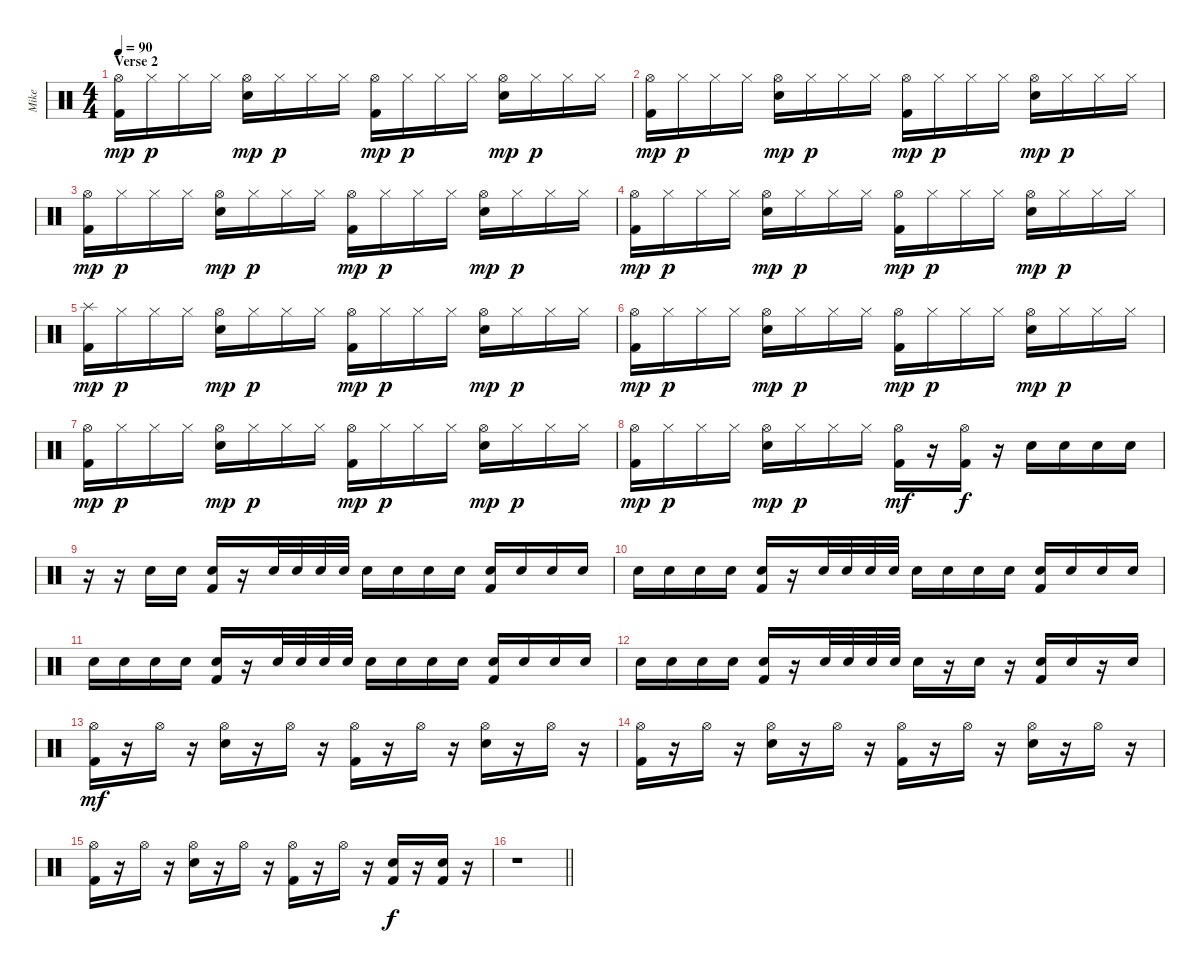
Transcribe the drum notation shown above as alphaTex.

\track ("Mike" "Mike") {instrument percussion}
\staff {score}
\articulation defaults
\ts (4 4)
\section ("" "Verse 2")
\tempo 90
\clef neutral
\ks c
("Hi-Hat (open)" "Kick (hit) 2").16{dy mp} "Hi-Hat (closed)".16{dy p} "Hi-Hat (closed)".16 "Hi-Hat (closed)".16 ("Hi-Hat (open)" "Snare (hit) 2").16{dy mp} "Hi-Hat (closed)".16{dy p} "Hi-Hat (closed)".16 "Hi-Hat (closed)".16 ("Hi-Hat (open)" "Kick (hit) 2").16{dy mp} "Hi-Hat (closed)".16{dy p} "Hi-Hat (closed)".16 "Hi-Hat (closed)".16 ("Hi-Hat (open)" "Snare (hit) 2").16{dy mp} "Hi-Hat (closed)".16{dy p} "Hi-Hat (closed)".16 "Hi-Hat (closed)".16 |
("Hi-Hat (open)" "Kick (hit) 2").16{dy mp} "Hi-Hat (closed)".16{dy p} "Hi-Hat (closed)".16 "Hi-Hat (closed)".16 ("Hi-Hat (open)" "Snare (hit) 2").16{dy mp} "Hi-Hat (closed)".16{dy p} "Hi-Hat (closed)".16 "Hi-Hat (closed)".16 ("Hi-Hat (open)" "Kick (hit) 2").16{dy mp} "Hi-Hat (closed)".16{dy p} "Hi-Hat (closed)".16 "Hi-Hat (closed)".16 ("Hi-Hat (open)" "Snare (hit) 2").16{dy mp} "Hi-Hat (closed)".16{dy p} "Hi-Hat (closed)".16 "Hi-Hat (closed)".16 |
("Hi-Hat (open)" "Kick (hit) 2").16{dy mp} "Hi-Hat (closed)".16{dy p} "Hi-Hat (closed)".16 "Hi-Hat (closed)".16 ("Hi-Hat (open)" "Snare (hit) 2").16{dy mp} "Hi-Hat (closed)".16{dy p} "Hi-Hat (closed)".16 "Hi-Hat (closed)".16 ("Hi-Hat (open)" "Kick (hit) 2").16{dy mp} "Hi-Hat (closed)".16{dy p} "Hi-Hat (closed)".16 "Hi-Hat (closed)".16 ("Hi-Hat (open)" "Snare (hit) 2").16{dy mp} "Hi-Hat (closed)".16{dy p} "Hi-Hat (closed)".16 "Hi-Hat (closed)".16 |
("Hi-Hat (open)" "Kick (hit) 2").16{dy mp} "Hi-Hat (closed)".16{dy p} "Hi-Hat (closed)".16 "Hi-Hat (closed)".16 ("Hi-Hat (open)" "Snare (hit) 2").16{dy mp} "Hi-Hat (closed)".16{dy p} "Hi-Hat (closed)".16 "Hi-Hat (closed)".16 ("Hi-Hat (open)" "Kick (hit) 2").16{dy mp} "Hi-Hat (closed)".16{dy p} "Hi-Hat (closed)".16 "Hi-Hat (closed)".16 ("Hi-Hat (open)" "Snare (hit) 2").16{dy mp} "Hi-Hat (closed)".16{dy p} "Hi-Hat (closed)".16 "Hi-Hat (closed)".16 |
("Splash (hit)" "Kick (hit) 2").16{dy mp} "Hi-Hat (closed)".16{dy p} "Hi-Hat (closed)".16 "Hi-Hat (closed)".16 ("Hi-Hat (open)" "Snare (hit) 2").16{dy mp} "Hi-Hat (closed)".16{dy p} "Hi-Hat (closed)".16 "Hi-Hat (closed)".16 ("Hi-Hat (open)" "Kick (hit) 2").16{dy mp} "Hi-Hat (closed)".16{dy p} "Hi-Hat (closed)".16 "Hi-Hat (closed)".16 ("Hi-Hat (open)" "Snare (hit) 2").16{dy mp} "Hi-Hat (closed)".16{dy p} "Hi-Hat (closed)".16 "Hi-Hat (closed)".16 |
("Hi-Hat (open)" "Kick (hit) 2").16{dy mp} "Hi-Hat (closed)".16{dy p} "Hi-Hat (closed)".16 "Hi-Hat (closed)".16 ("Hi-Hat (open)" "Snare (hit) 2").16{dy mp} "Hi-Hat (closed)".16{dy p} "Hi-Hat (closed)".16 "Hi-Hat (closed)".16 ("Hi-Hat (open)" "Kick (hit) 2").16{dy mp} "Hi-Hat (closed)".16{dy p} "Hi-Hat (closed)".16 "Hi-Hat (closed)".16 ("Hi-Hat (open)" "Snare (hit) 2").16{dy mp} "Hi-Hat (closed)".16{dy p} "Hi-Hat (closed)".16 "Hi-Hat (closed)".16 |
("Hi-Hat (open)" "Kick (hit) 2").16{dy mp} "Hi-Hat (closed)".16{dy p} "Hi-Hat (closed)".16 "Hi-Hat (closed)".16 ("Hi-Hat (open)" "Snare (hit) 2").16{dy mp} "Hi-Hat (closed)".16{dy p} "Hi-Hat (closed)".16 "Hi-Hat (closed)".16 ("Hi-Hat (open)" "Kick (hit) 2").16{dy mp} "Hi-Hat (closed)".16{dy p} "Hi-Hat (closed)".16 "Hi-Hat (closed)".16 ("Hi-Hat (open)" "Snare (hit) 2").16{dy mp} "Hi-Hat (closed)".16{dy p} "Hi-Hat (closed)".16 "Hi-Hat (closed)".16 |
("Hi-Hat (open)" "Kick (hit) 2").16{dy mp} "Hi-Hat (closed)".16{dy p} "Hi-Hat (closed)".16 "Hi-Hat (closed)".16 ("Hi-Hat (open)" "Snare (hit) 2").16{dy mp} "Hi-Hat (closed)".16{dy p} "Hi-Hat (closed)".16 "Hi-Hat (closed)".16 ("Hi-Hat (open)" "Kick (hit) 2").16{dy mf} r.16 ("Hi-Hat (open)" "Kick (hit) 2").16{dy f} r.16 "Snare (hit) 2".16 "Snare (hit) 2".16 "Snare (hit) 2".16 "Snare (hit) 2".16 |
r.16 r.16 "Snare (hit) 2".16 "Snare (hit) 2".16 ("Snare (hit) 2" "Kick (hit) 2").16 r.16 "Snare (hit) 2".32 "Snare (hit) 2".32 "Snare (hit) 2".32 "Snare (hit) 2".32 "Snare (hit) 2".16 "Snare (hit) 2".16 "Snare (hit) 2".16 "Snare (hit) 2".16 ("Snare (hit) 2" "Kick (hit) 2").16 "Snare (hit) 2".16 "Snare (hit) 2".16 "Snare (hit) 2".16 |
"Snare (hit) 2".16 "Snare (hit) 2".16 "Snare (hit) 2".16 "Snare (hit) 2".16 ("Snare (hit) 2" "Kick (hit) 2").16 r.16 "Snare (hit) 2".32 "Snare (hit) 2".32 "Snare (hit) 2".32 "Snare (hit) 2".32 "Snare (hit) 2".16 "Snare (hit) 2".16 "Snare (hit) 2".16 "Snare (hit) 2".16 ("Snare (hit) 2" "Kick (hit) 2").16 "Snare (hit) 2".16 "Snare (hit) 2".16 "Snare (hit) 2".16 |
"Snare (hit) 2".16 "Snare (hit) 2".16 "Snare (hit) 2".16 "Snare (hit) 2".16 ("Snare (hit) 2" "Kick (hit) 2").16 r.16 "Snare (hit) 2".32 "Snare (hit) 2".32 "Snare (hit) 2".32 "Snare (hit) 2".32 "Snare (hit) 2".16 "Snare (hit) 2".16 "Snare (hit) 2".16 "Snare (hit) 2".16 ("Snare (hit) 2" "Kick (hit) 2").16 "Snare (hit) 2".16 "Snare (hit) 2".16 "Snare (hit) 2".16 |
"Snare (hit) 2".16 "Snare (hit) 2".16 "Snare (hit) 2".16 "Snare (hit) 2".16 ("Snare (hit) 2" "Kick (hit) 2").16 r.16 "Snare (hit) 2".32 "Snare (hit) 2".32 "Snare (hit) 2".32 "Snare (hit) 2".32 "Snare (hit) 2".16 r.16 "Snare (hit) 2".16 r.16 ("Snare (hit) 2" "Kick (hit) 2").16 "Snare (hit) 2".16 r.16 "Snare (hit) 2".16 |
("Hi-Hat (open)" "Kick (hit) 2").16{dy mf} r.16 "Hi-Hat (open)".16 r.16 ("Hi-Hat (open)" "Snare (hit) 2").16 r.16 "Hi-Hat (open)".16 r.16 ("Hi-Hat (open)" "Kick (hit) 2").16 r.16 "Hi-Hat (open)".16 r.16 ("Hi-Hat (open)" "Snare (hit) 2").16 r.16 "Hi-Hat (open)".16 r.16 |
("Hi-Hat (open)" "Kick (hit) 2").16 r.16 "Hi-Hat (open)".16 r.16 ("Hi-Hat (open)" "Snare (hit) 2").16 r.16 "Hi-Hat (open)".16 r.16 ("Hi-Hat (open)" "Kick (hit) 2").16 r.16 "Hi-Hat (open)".16 r.16 ("Hi-Hat (open)" "Snare (hit) 2").16 r.16 "Hi-Hat (open)".16 r.16 |
("Hi-Hat (open)" "Kick (hit) 2").16 r.16 "Hi-Hat (open)".16 r.16 ("Hi-Hat (open)" "Snare (hit) 2").16 r.16 "Hi-Hat (open)".16 r.16 ("Hi-Hat (open)" "Kick (hit) 2").16 r.16 "Hi-Hat (open)".16 r.16 ("Snare (hit) 2" "Kick (hit) 2").16{dy f} r.16 ("Snare (hit) 2" "Kick (hit) 2").16 r.16 |
\barLineRight lightlight
r.1
